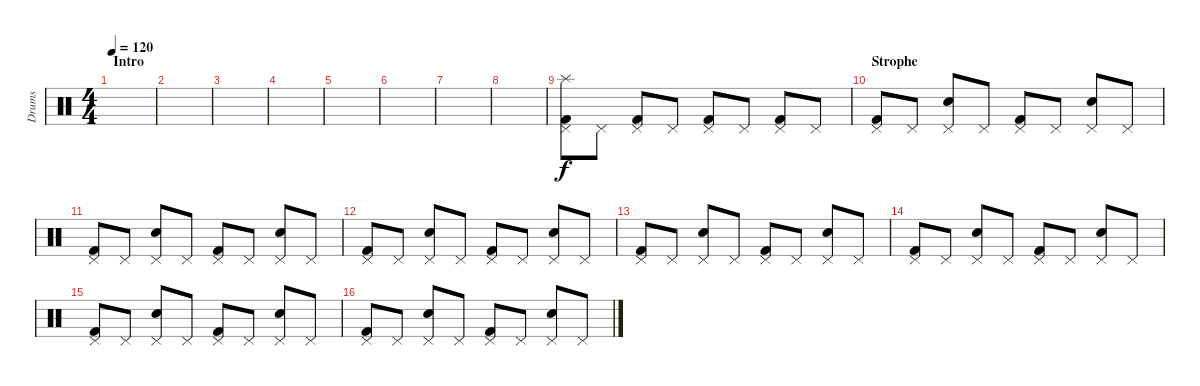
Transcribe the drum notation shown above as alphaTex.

\track ("Drums" "Drums") {instrument percussion}
\staff {score}
\articulation defaults
\ts (4 4)
\section ("" "Intro")
\tempo 120
\clef neutral
\ks c
|
|
|
|
|
|
|
|
("Splash (hit)" "Pedal Hi-Hat (hit)" "Kick (hit) 2").8 "Pedal Hi-Hat (hit)".8 ("Pedal Hi-Hat (hit)" "Kick (hit) 2").8 "Pedal Hi-Hat (hit)".8 ("Pedal Hi-Hat (hit)" "Kick (hit) 2").8 "Pedal Hi-Hat (hit)".8 ("Pedal Hi-Hat (hit)" "Kick (hit) 2").8 "Pedal Hi-Hat (hit)".8 |
\section ("" "Strophe")
("Pedal Hi-Hat (hit)" "Kick (hit) 2").8 "Pedal Hi-Hat (hit)".8 ("Pedal Hi-Hat (hit)" "Snare (hit) 2").8 "Pedal Hi-Hat (hit)".8 ("Pedal Hi-Hat (hit)" "Kick (hit) 2").8 "Pedal Hi-Hat (hit)".8 ("Pedal Hi-Hat (hit)" "Snare (hit) 2").8 "Pedal Hi-Hat (hit)".8 |
("Pedal Hi-Hat (hit)" "Kick (hit) 2").8 "Pedal Hi-Hat (hit)".8 ("Pedal Hi-Hat (hit)" "Snare (hit) 2").8 "Pedal Hi-Hat (hit)".8 ("Pedal Hi-Hat (hit)" "Kick (hit) 2").8 "Pedal Hi-Hat (hit)".8 ("Pedal Hi-Hat (hit)" "Snare (hit) 2").8 "Pedal Hi-Hat (hit)".8 |
("Pedal Hi-Hat (hit)" "Kick (hit) 2").8 "Pedal Hi-Hat (hit)".8 ("Pedal Hi-Hat (hit)" "Snare (hit) 2").8 "Pedal Hi-Hat (hit)".8 ("Pedal Hi-Hat (hit)" "Kick (hit) 2").8 "Pedal Hi-Hat (hit)".8 ("Pedal Hi-Hat (hit)" "Snare (hit) 2").8 "Pedal Hi-Hat (hit)".8 |
("Pedal Hi-Hat (hit)" "Kick (hit) 2").8 "Pedal Hi-Hat (hit)".8 ("Pedal Hi-Hat (hit)" "Snare (hit) 2").8 "Pedal Hi-Hat (hit)".8 ("Pedal Hi-Hat (hit)" "Kick (hit) 2").8 "Pedal Hi-Hat (hit)".8 ("Pedal Hi-Hat (hit)" "Snare (hit) 2").8 "Pedal Hi-Hat (hit)".8 |
("Pedal Hi-Hat (hit)" "Kick (hit) 2").8 "Pedal Hi-Hat (hit)".8 ("Pedal Hi-Hat (hit)" "Snare (hit) 2").8 "Pedal Hi-Hat (hit)".8 ("Pedal Hi-Hat (hit)" "Kick (hit) 2").8 "Pedal Hi-Hat (hit)".8 ("Pedal Hi-Hat (hit)" "Snare (hit) 2").8 "Pedal Hi-Hat (hit)".8 |
("Pedal Hi-Hat (hit)" "Kick (hit) 2").8 "Pedal Hi-Hat (hit)".8 ("Pedal Hi-Hat (hit)" "Snare (hit) 2").8 "Pedal Hi-Hat (hit)".8 ("Pedal Hi-Hat (hit)" "Kick (hit) 2").8 "Pedal Hi-Hat (hit)".8 ("Pedal Hi-Hat (hit)" "Snare (hit) 2").8 "Pedal Hi-Hat (hit)".8 |
("Pedal Hi-Hat (hit)" "Kick (hit) 2").8 "Pedal Hi-Hat (hit)".8 ("Pedal Hi-Hat (hit)" "Snare (hit) 2").8 "Pedal Hi-Hat (hit)".8 ("Pedal Hi-Hat (hit)" "Kick (hit) 2").8 "Pedal Hi-Hat (hit)".8 ("Pedal Hi-Hat (hit)" "Snare (hit) 2").8 "Pedal Hi-Hat (hit)".8
